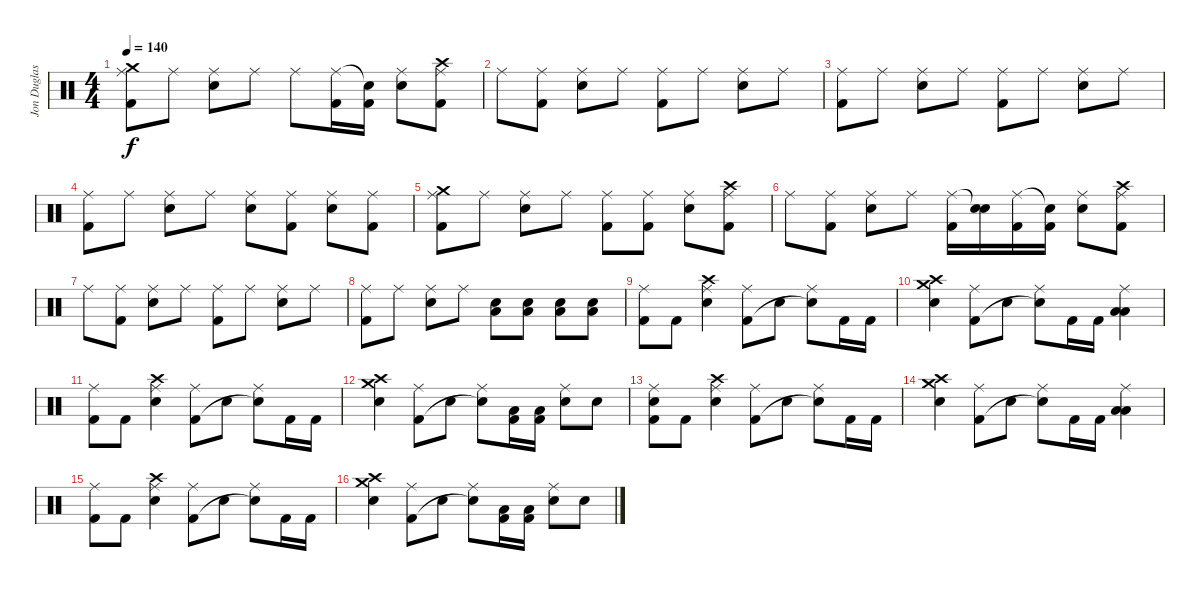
\track ("Jon Duglas (Drums)" "Jon Duglas") {instrument percussion}
\staff {score}
\articulation defaults
\ts (4 4)
\tempo 140
\clef neutral
\ks c
("Ride (middle)" "Kick (hit) 2" "Crash medium (hit)").8{dy f} "Ride (middle)".8 ("Ride (middle)" "Electric Snare (hit)").8 "Ride (middle)".8 "Ride (middle)".8 ("Ride (middle)" "Kick (hit) 2").16 ("Snare (hit)"{t} "Kick (hit) 2").16 ("Ride (middle)" "Electric Snare (hit)").8 ("Ride (middle)" "Kick (hit) 2" "Crash high (hit)").8 |
"Ride (middle)".8 ("Ride (middle)" "Kick (hit) 2").8 ("Ride (middle)" "Electric Snare (hit)").8 "Ride (middle)".8 ("Ride (middle)" "Kick (hit) 2").8 "Ride (middle)".8 ("Ride (middle)" "Electric Snare (hit)").8 "Ride (middle)".8 |
("Ride (middle)" "Kick (hit) 2").8 "Ride (middle)".8 ("Ride (middle)" "Electric Snare (hit)").8 "Ride (middle)".8 ("Ride (middle)" "Kick (hit) 2").8 "Ride (middle)".8 ("Ride (middle)" "Electric Snare (hit)").8 "Ride (middle)".8 |
("Ride (middle)" "Kick (hit) 2").8 "Ride (middle)".8 ("Ride (middle)" "Electric Snare (hit)").8 "Ride (middle)".8 ("Ride (middle)" "Electric Snare (hit)").8 ("Ride (middle)" "Kick (hit) 2").8 ("Ride (middle)" "Electric Snare (hit)").8 ("Ride (middle)" "Kick (hit) 2").8 |
("Ride (middle)" "Kick (hit) 2" "Crash medium (hit)").8 "Ride (middle)".8 ("Ride (middle)" "Electric Snare (hit)").8 "Ride (middle)".8 ("Ride (middle)" "Kick (hit) 2").8 ("Ride (middle)" "Kick (hit) 2").8 ("Ride (middle)" "Electric Snare (hit)").8 ("Ride (middle)" "Kick (hit) 2" "Crash high (hit)").8 |
"Ride (middle)".8 ("Ride (middle)" "Kick (hit) 2").8 ("Ride (middle)" "Electric Snare (hit)").8 "Ride (middle)".8 ("Ride (middle)" "Kick (hit) 2").16 ("Snare (hit)"{t} "Electric Snare (hit)").16 ("Ride (middle)" "Kick (hit) 2").16 ("Snare (hit)"{t} "Kick (hit) 2").16 ("Ride (middle)" "Electric Snare (hit)").8 ("Ride (middle)" "Kick (hit) 2" "Crash high (hit)").8 |
"Ride (middle)".8 ("Ride (middle)" "Kick (hit) 2").8 ("Ride (middle)" "Electric Snare (hit)").8 "Ride (middle)".8 ("Ride (middle)" "Kick (hit) 2").8 "Ride (middle)".8 ("Ride (middle)" "Electric Snare (hit)").8 "Ride (middle)".8 |
("Ride (middle)" "Kick (hit) 2").8 "Ride (middle)".8 ("Ride (middle)" "Electric Snare (hit)").8 "Ride (middle)".8 ("Low Floor Tom (hit)" "Electric Snare (hit)").8 ("Low Floor Tom (hit)" "Electric Snare (hit)").8 ("Low Floor Tom (hit)" "Electric Snare (hit)").8 ("Low Floor Tom (hit)" "Electric Snare (hit)").8 |
("Ride (middle)" "Kick (hit) 2").8 "Kick (hit) 2".8 ("Crash high (hit)" "Ride (middle)" "Electric Snare (hit)").4 ("Ride (middle)" "Kick (hit) 2").8 "Electric Snare (hit)".8 ("Ride (middle)" "Snare (hit)"{t}).8 "Kick (hit) 2".16 "Kick (hit) 2".16 |
("Crash high (hit)" "Electric Snare (hit)" "Crash medium (hit)").4 ("Ride (middle)" "Kick (hit) 2").8 "Electric Snare (hit)".8 ("Ride (middle)" "Snare (hit)"{t}).8 "Kick (hit) 2".16 "Kick (hit) 2".16 ("Ride (middle)" "Low Tom (hit)" "Low Tom (hit)").4 |
("Ride (middle)" "Kick (hit) 2").8 "Kick (hit) 2".8 ("Crash high (hit)" "Ride (middle)" "Electric Snare (hit)").4 ("Ride (middle)" "Kick (hit) 2").8 "Electric Snare (hit)".8 ("Ride (middle)" "Snare (hit)"{t}).8 "Kick (hit) 2".16 "Kick (hit) 2".16 |
("Crash high (hit)" "Electric Snare (hit)" "Crash medium (hit)").4 ("Ride (middle)" "Kick (hit) 2").8 "Electric Snare (hit)".8 ("Ride (middle)" "Snare (hit)"{t}).8 ("Low Floor Tom (hit)" "Kick (hit) 2").16 ("Low Floor Tom (hit)" "Kick (hit) 2").16 ("Ride (middle)" "Electric Snare (hit)").8 "Electric Snare (hit)".8 |
("Ride (middle)" "Kick (hit) 2" "Electric Snare (hit)").8 "Kick (hit) 2".8 ("Crash high (hit)" "Ride (middle)" "Electric Snare (hit)").4 ("Ride (middle)" "Kick (hit) 2").8 "Electric Snare (hit)".8 ("Ride (middle)" "Snare (hit)"{t}).8 "Kick (hit) 2".16 "Kick (hit) 2".16 |
("Crash high (hit)" "Electric Snare (hit)" "Crash medium (hit)").4 ("Ride (middle)" "Kick (hit) 2").8 "Electric Snare (hit)".8 ("Ride (middle)" "Snare (hit)"{t}).8 "Kick (hit) 2".16 "Kick (hit) 2".16 ("Ride (middle)" "Low Tom (hit)" "Low Tom (hit)").4 |
("Ride (middle)" "Kick (hit) 2").8 "Kick (hit) 2".8 ("Crash high (hit)" "Ride (middle)" "Electric Snare (hit)").4 ("Ride (middle)" "Kick (hit) 2").8 "Electric Snare (hit)".8 ("Ride (middle)" "Snare (hit)"{t}).8 "Kick (hit) 2".16 "Kick (hit) 2".16 |
("Crash high (hit)" "Electric Snare (hit)" "Crash medium (hit)").4 ("Ride (middle)" "Kick (hit) 2").8 "Electric Snare (hit)".8 ("Ride (middle)" "Snare (hit)"{t}).8 ("Low Floor Tom (hit)" "Kick (hit) 2").16 ("Low Floor Tom (hit)" "Kick (hit) 2").16 ("Ride (middle)" "Electric Snare (hit)").8 "Electric Snare (hit)".8
